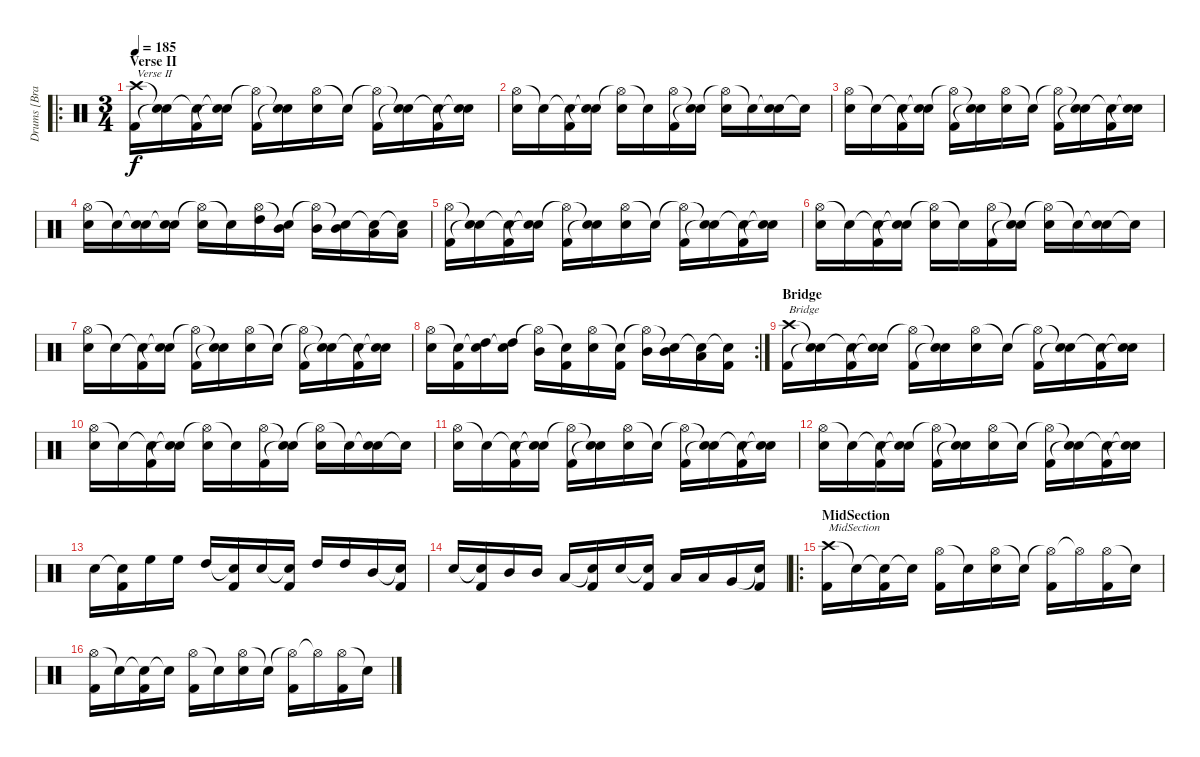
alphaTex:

\track ("Drums [Brann Dailor]" "Drums [Bra") {instrument percussion}
\staff {score}
\articulation defaults
\ro
\ts (3 4)
\section ("" "Verse II")
\tempo 185
\clef neutral
\ks c
("Crash high (hit)" "Kick (hit) 2").16{txt "Verse II" dy f} ("Snare (hit)"{t} "Snare (hit)"{t}).16 ("Snare (hit)"{t} "Kick (hit) 2").16 ("Snare (hit)"{t} "Snare (hit)"{t}).16 ("Hi-Hat (open)"{t} "Kick (hit) 2").16 ("Snare (hit)"{t} "Snare (hit)"{t}).16 ("Hi-Hat (open)" "Electric Snare (hit)").16 "Snare (hit)"{t}.16 ("Hi-Hat (open)"{t} "Kick (hit) 2").16 ("Snare (hit)"{t} "Snare (hit)"{t}).16 ("Snare (hit)"{t} "Kick (hit) 2").16 ("Snare (hit)"{t} "Snare (hit)"{t}).16 |
("Hi-Hat (open)" "Electric Snare (hit)").16 "Snare (hit)"{t}.16 ("Snare (hit)"{t} "Kick (hit) 2").16 ("Snare (hit)"{t} "Snare (hit)"{t}).16 ("Hi-Hat (open)"{t} "Electric Snare (hit)").16 "Snare (hit)"{t}.16 ("Hi-Hat (open)" "Kick (hit) 2").16 ("Snare (hit)"{t} "Snare (hit)"{t}).16 ("Hi-Hat (open)"{t} "Electric Snare (hit)").16 "Snare (hit)"{t}.16 ("Snare (hit)"{t} "Electric Snare (hit)").16 "Snare (hit)"{t}.16 |
("Hi-Hat (open)" "Electric Snare (hit)").16 "Snare (hit)"{t}.16 ("Snare (hit)"{t} "Kick (hit) 2").16 ("Snare (hit)"{t} "Snare (hit)"{t}).16 ("Hi-Hat (open)"{t} "Kick (hit) 2").16 ("Snare (hit)"{t} "Snare (hit)"{t}).16 ("Hi-Hat (open)" "Electric Snare (hit)").16 "Snare (hit)"{t}.16 ("Hi-Hat (open)"{t} "Kick (hit) 2").16 ("Snare (hit)"{t} "Snare (hit)"{t}).16 ("Snare (hit)"{t} "Kick (hit) 2").16 ("Snare (hit)"{t} "Snare (hit)"{t}).16 |
("Hi-Hat (open)" "Electric Snare (hit)").16 "Snare (hit)"{t}.16 ("Snare (hit)"{t} "Electric Snare (hit)").16 ("Snare (hit)"{t} "Electric Snare (hit)").16 ("Hi-Hat (open)"{t} "Electric Snare (hit)").16 "Snare (hit)"{t}.16 ("Hi-Hat (open)" "High Tom (hit)").16 ("Snare (hit)"{t} "Mid Tom (hit)").16 ("Hi-Hat (open)"{t} "Mid Tom (hit)").16 ("Snare (hit)"{t} "Mid Tom (hit)").16 ("Snare (hit)"{t} "Low Tom (hit)").16 ("Snare (hit)"{t} "Low Tom (hit)").16 |
("Hi-Hat (open)" "Kick (hit) 2").16 ("Snare (hit)"{t} "Snare (hit)"{t}).16 ("Snare (hit)"{t} "Kick (hit) 2").16 ("Snare (hit)"{t} "Snare (hit)"{t}).16 ("Hi-Hat (open)"{t} "Kick (hit) 2").16 ("Snare (hit)"{t} "Snare (hit)"{t}).16 ("Hi-Hat (open)" "Electric Snare (hit)").16 "Snare (hit)"{t}.16 ("Hi-Hat (open)"{t} "Kick (hit) 2").16 ("Snare (hit)"{t} "Snare (hit)"{t}).16 ("Snare (hit)"{t} "Kick (hit) 2").16 ("Snare (hit)"{t} "Snare (hit)"{t}).16 |
("Hi-Hat (open)" "Electric Snare (hit)").16 "Snare (hit)"{t}.16 ("Snare (hit)"{t} "Kick (hit) 2").16 ("Snare (hit)"{t} "Snare (hit)"{t}).16 ("Hi-Hat (open)"{t} "Electric Snare (hit)").16 "Snare (hit)"{t}.16 ("Hi-Hat (open)" "Kick (hit) 2").16 ("Snare (hit)"{t} "Snare (hit)"{t}).16 ("Hi-Hat (open)"{t} "Electric Snare (hit)").16 "Snare (hit)"{t}.16 ("Snare (hit)"{t} "Electric Snare (hit)").16 "Snare (hit)"{t}.16 |
("Hi-Hat (open)" "Electric Snare (hit)").16 "Snare (hit)"{t}.16 ("Snare (hit)"{t} "Kick (hit) 2").16 ("Snare (hit)"{t} "Snare (hit)"{t}).16 ("Hi-Hat (open)"{t} "Kick (hit) 2").16 ("Snare (hit)"{t} "Snare (hit)"{t}).16 ("Hi-Hat (open)" "Electric Snare (hit)").16 "Snare (hit)"{t}.16 ("Hi-Hat (open)"{t} "Kick (hit) 2").16 ("Snare (hit)"{t} "Snare (hit)"{t}).16 ("Snare (hit)"{t} "Kick (hit) 2").16 ("Snare (hit)"{t} "Snare (hit)"{t}).16 |
\rc 2
("Hi-Hat (open)" "Electric Snare (hit)").16 ("Snare (hit)"{t} "Kick (hit) 2").16 ("Snare (hit)"{t} "High Tom (hit)").16 ("Snare (hit)"{t} "High Tom (hit)").16 ("Hi-Hat (open)"{t} "Mid Tom (hit)").16 ("Snare (hit)"{t} "Kick (hit) 2").16 ("Hi-Hat (open)" "Electric Snare (hit)").16 ("Snare (hit)"{t} "Kick (hit) 2").16 ("Hi-Hat (open)"{t} "Mid Tom (hit)").16 ("Snare (hit)"{t} "Mid Tom (hit)").16 ("Snare (hit)"{t} "Low Tom (hit)").16 ("Snare (hit)"{t} "Kick (hit) 2").16 |
\section ("" "Bridge")
("Crash high (hit)" "Kick (hit) 2").16{txt "Bridge"} ("Snare (hit)"{t} "Snare (hit)"{t}).16 ("Snare (hit)"{t} "Kick (hit) 2").16 ("Snare (hit)"{t} "Snare (hit)"{t}).16 ("Hi-Hat (open)"{t} "Kick (hit) 2").16 ("Snare (hit)"{t} "Snare (hit)"{t}).16 ("Hi-Hat (open)" "Electric Snare (hit)").16 "Snare (hit)"{t}.16 ("Hi-Hat (open)"{t} "Kick (hit) 2").16 ("Snare (hit)"{t} "Snare (hit)"{t}).16 ("Snare (hit)"{t} "Kick (hit) 2").16 ("Snare (hit)"{t} "Snare (hit)"{t}).16 |
("Hi-Hat (open)" "Electric Snare (hit)").16 "Snare (hit)"{t}.16 ("Snare (hit)"{t} "Kick (hit) 2").16 ("Snare (hit)"{t} "Snare (hit)"{t}).16 ("Hi-Hat (open)"{t} "Electric Snare (hit)").16 "Snare (hit)"{t}.16 ("Hi-Hat (open)" "Kick (hit) 2").16 ("Snare (hit)"{t} "Snare (hit)"{t}).16 ("Hi-Hat (open)"{t} "Electric Snare (hit)").16 "Snare (hit)"{t}.16 ("Snare (hit)"{t} "Electric Snare (hit)").16 "Snare (hit)"{t}.16 |
("Hi-Hat (open)" "Electric Snare (hit)").16 "Snare (hit)"{t}.16 ("Snare (hit)"{t} "Kick (hit) 2").16 ("Snare (hit)"{t} "Snare (hit)"{t}).16 ("Hi-Hat (open)"{t} "Kick (hit) 2").16 ("Snare (hit)"{t} "Snare (hit)"{t}).16 ("Hi-Hat (open)" "Electric Snare (hit)").16 "Snare (hit)"{t}.16 ("Hi-Hat (open)"{t} "Kick (hit) 2").16 ("Snare (hit)"{t} "Snare (hit)"{t}).16 ("Snare (hit)"{t} "Kick (hit) 2").16 ("Snare (hit)"{t} "Snare (hit)"{t}).16 |
("Hi-Hat (open)" "Electric Snare (hit)").16 "Snare (hit)"{t}.16 ("Snare (hit)"{t} "Kick (hit) 2").16 ("Snare (hit)"{t} "Snare (hit)"{t}).16 ("Hi-Hat (open)"{t} "Kick (hit) 2").16 ("Snare (hit)"{t} "Snare (hit)"{t}).16 ("Hi-Hat (open)" "Electric Snare (hit)").16 "Snare (hit)"{t}.16 ("Hi-Hat (open)"{t} "Kick (hit) 2").16 ("Snare (hit)"{t} "Snare (hit)"{t}).16 ("Snare (hit)"{t} "Kick (hit) 2").16 ("Snare (hit)"{t} "Snare (hit)"{t}).16 |
"Electric Snare (hit)".16 ("Snare (hit)"{t} "Kick (hit) 2").16 "High Floor Tom (hit)".16 "High Floor Tom (hit)".16 "High Tom (hit)".16 ("Snare (hit)"{t} "Kick (hit) 2").16 "Electric Snare (hit)".16 ("Snare (hit)"{t} "Kick (hit) 2").16 "High Tom (hit)".16 "High Tom (hit)".16 "Mid Tom (hit)".16 ("Snare (hit)"{t} "Kick (hit) 2").16 |
"Electric Snare (hit)".16 ("Snare (hit)"{t} "Kick (hit) 2").16 "Mid Tom (hit)".16 "Mid Tom (hit)".16 "Low Tom (hit)".16 ("Snare (hit)"{t} "Kick (hit) 2").16 "Electric Snare (hit)".16 ("Snare (hit)"{t} "Kick (hit) 2").16 "Low Tom (hit)".16 "Low Tom (hit)".16 "Very Low Tom (hit)".16 ("Snare (hit)"{t} "Kick (hit) 2").16 |
\ro
\section ("" "MidSection")
("Crash high (hit)" "Kick (hit) 2").16{txt "MidSection"} "Snare (hit)"{t}.16 ("Snare (hit)"{t} "Kick (hit) 2").16 "Snare (hit)"{t}.16 ("Hi-Hat (open)" "Kick (hit) 2").16 "Snare (hit)"{t}.16 ("Hi-Hat (open)" "Electric Snare (hit)").16 "Snare (hit)"{t}.16 ("Hi-Hat (open)"{t} "Kick (hit) 2").16 "Hi-Hat (open)"{t}.16 ("Hi-Hat (open)" "Kick (hit) 2").16 "Snare (hit)"{t}.16 |
("Hi-Hat (open)" "Kick (hit) 2").16 "Snare (hit)"{t}.16 ("Snare (hit)"{t} "Kick (hit) 2").16 "Snare (hit)"{t}.16 ("Hi-Hat (open)" "Kick (hit) 2").16 "Snare (hit)"{t}.16 ("Hi-Hat (open)" "Electric Snare (hit)").16 "Snare (hit)"{t}.16 ("Hi-Hat (open)"{t} "Kick (hit) 2").16 "Hi-Hat (open)"{t}.16 ("Hi-Hat (open)" "Kick (hit) 2").16 "Snare (hit)"{t}.16
